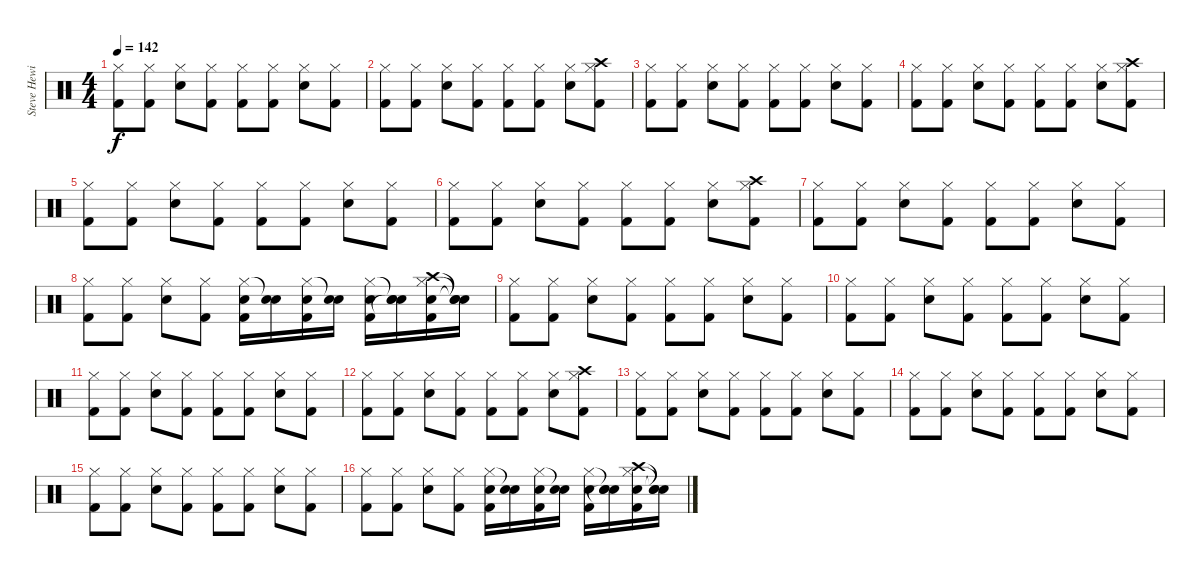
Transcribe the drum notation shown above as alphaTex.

\track ("Steve Hewitt" "Steve Hewi") {instrument percussion}
\staff {score}
\articulation defaults
\ts (4 4)
\tempo 142
\clef neutral
\ks c
("Hi-Hat (closed)" "Kick (hit) 2").8{dy f} ("Hi-Hat (closed)" "Kick (hit) 2").8 ("Hi-Hat (closed)" "Snare (hit) 2").8 ("Hi-Hat (closed)" "Kick (hit) 2").8 ("Hi-Hat (closed)" "Kick (hit) 2").8 ("Hi-Hat (closed)" "Kick (hit) 2").8 ("Hi-Hat (closed)" "Snare (hit) 2").8 ("Hi-Hat (closed)" "Kick (hit) 2").8 |
("Hi-Hat (closed)" "Kick (hit) 2").8 ("Hi-Hat (closed)" "Kick (hit) 2").8 ("Hi-Hat (closed)" "Snare (hit) 2").8 ("Hi-Hat (closed)" "Kick (hit) 2").8 ("Hi-Hat (closed)" "Kick (hit) 2").8 ("Hi-Hat (closed)" "Kick (hit) 2").8 ("Hi-Hat (closed)" "Snare (hit) 2").8 ("Crash high (hit)" "Hi-Hat (closed)" "Kick (hit) 2").8 |
("Hi-Hat (closed)" "Kick (hit) 2").8 ("Hi-Hat (closed)" "Kick (hit) 2").8 ("Hi-Hat (closed)" "Snare (hit) 2").8 ("Hi-Hat (closed)" "Kick (hit) 2").8 ("Hi-Hat (closed)" "Kick (hit) 2").8 ("Hi-Hat (closed)" "Kick (hit) 2").8 ("Hi-Hat (closed)" "Snare (hit) 2").8 ("Hi-Hat (closed)" "Kick (hit) 2").8 |
("Hi-Hat (closed)" "Kick (hit) 2").8 ("Hi-Hat (closed)" "Kick (hit) 2").8 ("Hi-Hat (closed)" "Snare (hit) 2").8 ("Hi-Hat (closed)" "Kick (hit) 2").8 ("Hi-Hat (closed)" "Kick (hit) 2").8 ("Hi-Hat (closed)" "Kick (hit) 2").8 ("Hi-Hat (closed)" "Snare (hit) 2").8 ("Crash high (hit)" "Hi-Hat (closed)" "Kick (hit) 2").8 |
("Hi-Hat (closed)" "Kick (hit) 2").8 ("Hi-Hat (closed)" "Kick (hit) 2").8 ("Hi-Hat (closed)" "Snare (hit) 2").8 ("Hi-Hat (closed)" "Kick (hit) 2").8 ("Hi-Hat (closed)" "Kick (hit) 2").8 ("Hi-Hat (closed)" "Kick (hit) 2").8 ("Hi-Hat (closed)" "Snare (hit) 2").8 ("Hi-Hat (closed)" "Kick (hit) 2").8 |
("Hi-Hat (closed)" "Kick (hit) 2").8 ("Hi-Hat (closed)" "Kick (hit) 2").8 ("Hi-Hat (closed)" "Snare (hit) 2").8 ("Hi-Hat (closed)" "Kick (hit) 2").8 ("Hi-Hat (closed)" "Kick (hit) 2").8 ("Hi-Hat (closed)" "Kick (hit) 2").8 ("Hi-Hat (closed)" "Snare (hit) 2").8 ("Crash high (hit)" "Hi-Hat (closed)" "Kick (hit) 2").8 |
("Hi-Hat (closed)" "Kick (hit) 2").8 ("Hi-Hat (closed)" "Kick (hit) 2").8 ("Hi-Hat (closed)" "Snare (hit) 2").8 ("Hi-Hat (closed)" "Kick (hit) 2").8 ("Hi-Hat (closed)" "Kick (hit) 2").8 ("Hi-Hat (closed)" "Kick (hit) 2").8 ("Hi-Hat (closed)" "Snare (hit) 2").8 ("Hi-Hat (closed)" "Kick (hit) 2").8 |
("Hi-Hat (closed)" "Kick (hit) 2").8 ("Hi-Hat (closed)" "Kick (hit) 2").8 ("Hi-Hat (closed)" "Snare (hit) 2").8 ("Hi-Hat (closed)" "Kick (hit) 2").8 ("Snare (hit) 2" "Hi-Hat (closed)" "Kick (hit) 2").16 ("Snare (hit) 2" "Snare (hit)"{t}).16 ("Snare (hit) 2" "Hi-Hat (closed)" "Kick (hit) 2").16 ("Snare (hit) 2" "Snare (hit)"{t}).16 ("Snare (hit) 2" "Hi-Hat (closed)" "Kick (hit) 2").16 ("Snare (hit) 2" "Snare (hit)"{t} "Snare (hit)"{t}).16 ("Snare (hit) 2" "Crash high (hit)" "Hi-Hat (closed)" "Kick (hit) 2").16 ("Snare (hit)"{t} "Snare (hit)"{t} "Snare (hit)"{t}).16 |
("Hi-Hat (closed)" "Kick (hit) 2").8 ("Hi-Hat (closed)" "Kick (hit) 2").8 ("Hi-Hat (closed)" "Snare (hit) 2").8 ("Hi-Hat (closed)" "Kick (hit) 2").8 ("Hi-Hat (closed)" "Kick (hit) 2").8 ("Hi-Hat (closed)" "Kick (hit) 2").8 ("Hi-Hat (closed)" "Snare (hit) 2").8 ("Hi-Hat (closed)" "Kick (hit) 2").8 |
("Hi-Hat (closed)" "Kick (hit) 2").8 ("Hi-Hat (closed)" "Kick (hit) 2").8 ("Hi-Hat (closed)" "Snare (hit) 2").8 ("Hi-Hat (closed)" "Kick (hit) 2").8 ("Hi-Hat (closed)" "Kick (hit) 2").8 ("Hi-Hat (closed)" "Kick (hit) 2").8 ("Hi-Hat (closed)" "Snare (hit) 2").8 ("Hi-Hat (closed)" "Kick (hit) 2").8 |
("Hi-Hat (closed)" "Kick (hit) 2").8 ("Hi-Hat (closed)" "Kick (hit) 2").8 ("Hi-Hat (closed)" "Snare (hit) 2").8 ("Hi-Hat (closed)" "Kick (hit) 2").8 ("Hi-Hat (closed)" "Kick (hit) 2").8 ("Hi-Hat (closed)" "Kick (hit) 2").8 ("Hi-Hat (closed)" "Snare (hit) 2").8 ("Hi-Hat (closed)" "Kick (hit) 2").8 |
("Hi-Hat (closed)" "Kick (hit) 2").8 ("Hi-Hat (closed)" "Kick (hit) 2").8 ("Hi-Hat (closed)" "Snare (hit) 2").8 ("Hi-Hat (closed)" "Kick (hit) 2").8 ("Hi-Hat (closed)" "Kick (hit) 2").8 ("Hi-Hat (closed)" "Kick (hit) 2").8 ("Hi-Hat (closed)" "Snare (hit) 2").8 ("Crash high (hit)" "Hi-Hat (closed)" "Kick (hit) 2").8 |
("Hi-Hat (closed)" "Kick (hit) 2").8 ("Hi-Hat (closed)" "Kick (hit) 2").8 ("Hi-Hat (closed)" "Snare (hit) 2").8 ("Hi-Hat (closed)" "Kick (hit) 2").8 ("Hi-Hat (closed)" "Kick (hit) 2").8 ("Hi-Hat (closed)" "Kick (hit) 2").8 ("Hi-Hat (closed)" "Snare (hit) 2").8 ("Hi-Hat (closed)" "Kick (hit) 2").8 |
("Hi-Hat (closed)" "Kick (hit) 2").8 ("Hi-Hat (closed)" "Kick (hit) 2").8 ("Hi-Hat (closed)" "Snare (hit) 2").8 ("Hi-Hat (closed)" "Kick (hit) 2").8 ("Hi-Hat (closed)" "Kick (hit) 2").8 ("Hi-Hat (closed)" "Kick (hit) 2").8 ("Hi-Hat (closed)" "Snare (hit) 2").8 ("Hi-Hat (closed)" "Kick (hit) 2").8 |
("Hi-Hat (closed)" "Kick (hit) 2").8 ("Hi-Hat (closed)" "Kick (hit) 2").8 ("Hi-Hat (closed)" "Snare (hit) 2").8 ("Hi-Hat (closed)" "Kick (hit) 2").8 ("Hi-Hat (closed)" "Kick (hit) 2").8 ("Hi-Hat (closed)" "Kick (hit) 2").8 ("Hi-Hat (closed)" "Snare (hit) 2").8 ("Hi-Hat (closed)" "Kick (hit) 2").8 |
("Hi-Hat (closed)" "Kick (hit) 2").8 ("Hi-Hat (closed)" "Kick (hit) 2").8 ("Hi-Hat (closed)" "Snare (hit) 2").8 ("Hi-Hat (closed)" "Kick (hit) 2").8 ("Snare (hit) 2" "Hi-Hat (closed)" "Kick (hit) 2").16 ("Snare (hit) 2" "Snare (hit)"{t}).16 ("Snare (hit) 2" "Hi-Hat (closed)" "Kick (hit) 2").16 ("Snare (hit) 2" "Snare (hit)"{t}).16 ("Snare (hit) 2" "Hi-Hat (closed)" "Kick (hit) 2").16 ("Snare (hit) 2" "Snare (hit)"{t} "Snare (hit)"{t}).16 ("Snare (hit) 2" "Crash high (hit)" "Hi-Hat (closed)" "Kick (hit) 2").16 ("Snare (hit)"{t} "Snare (hit)"{t} "Snare (hit)"{t}).16
